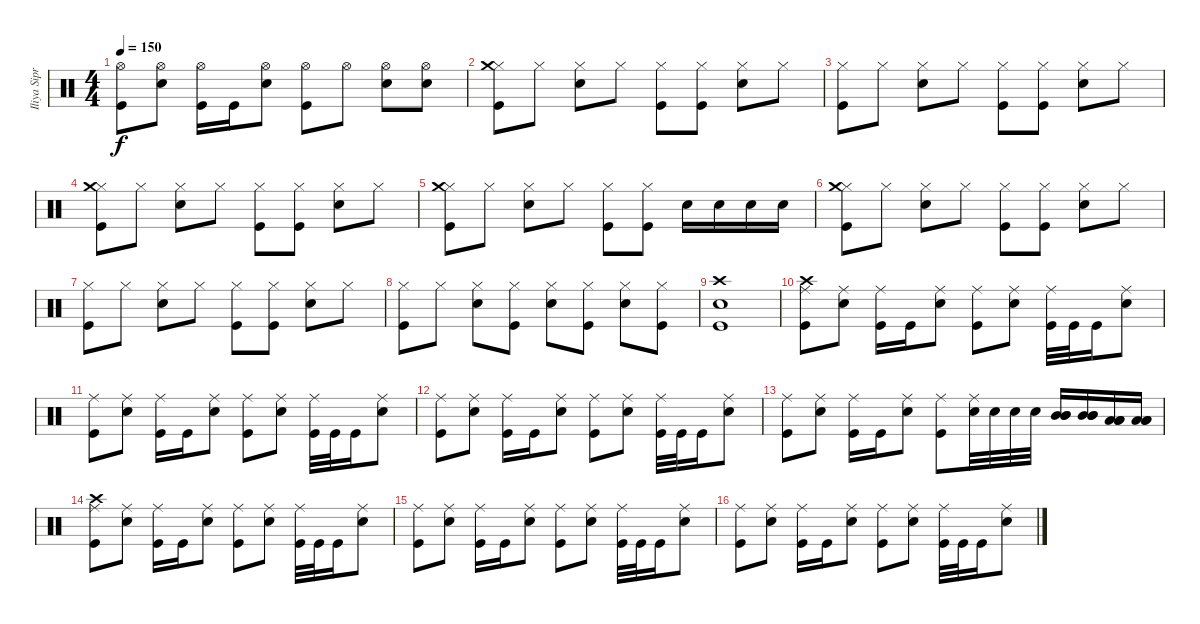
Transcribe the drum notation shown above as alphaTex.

\track ("Iliya Siprov (DRUMS)" "Iliya Sipr") {instrument percussion}
\staff {score}
\articulation defaults
\ts (4 4)
\tempo 150
\clef neutral
\ks c
("Hi-Hat (open)" "Kick (hit)").8{dy f} ("Hi-Hat (open)" "Electric Snare (hit)").8 ("Hi-Hat (open)" "Kick (hit)").16 "Kick (hit)".16 ("Hi-Hat (open)" "Electric Snare (hit)").8 ("Hi-Hat (open)" "Kick (hit)").8 "Hi-Hat (open)".8 ("Hi-Hat (open)" "Electric Snare (hit)").8 ("Hi-Hat (open)" "Electric Snare (hit)").8 |
("Hi-Hat (closed)" "Crash medium (hit)" "Kick (hit)").8 "Hi-Hat (closed)".8 ("Hi-Hat (closed)" "Electric Snare (hit)").8 "Hi-Hat (closed)".8 ("Hi-Hat (closed)" "Kick (hit)").8 ("Hi-Hat (closed)" "Kick (hit)").8 ("Hi-Hat (closed)" "Electric Snare (hit)").8 "Hi-Hat (closed)".8 |
("Hi-Hat (closed)" "Kick (hit)").8 "Hi-Hat (closed)".8 ("Hi-Hat (closed)" "Electric Snare (hit)").8 "Hi-Hat (closed)".8 ("Hi-Hat (closed)" "Kick (hit)").8 ("Hi-Hat (closed)" "Kick (hit)").8 ("Hi-Hat (closed)" "Electric Snare (hit)").8 "Hi-Hat (closed)".8 |
("Hi-Hat (closed)" "Crash medium (hit)" "Kick (hit)").8 "Hi-Hat (closed)".8 ("Hi-Hat (closed)" "Electric Snare (hit)").8 "Hi-Hat (closed)".8 ("Hi-Hat (closed)" "Kick (hit)").8 ("Hi-Hat (closed)" "Kick (hit)").8 ("Hi-Hat (closed)" "Electric Snare (hit)").8 "Hi-Hat (closed)".8 |
("Hi-Hat (closed)" "Crash medium (hit)" "Kick (hit)").8 "Hi-Hat (closed)".8 ("Hi-Hat (closed)" "Electric Snare (hit)").8 "Hi-Hat (closed)".8 ("Hi-Hat (closed)" "Kick (hit)").8 ("Hi-Hat (closed)" "Kick (hit)").8 "Electric Snare (hit)".16 "Electric Snare (hit)".16 "Electric Snare (hit)".16 "Electric Snare (hit)".16 |
("Hi-Hat (closed)" "Crash medium (hit)" "Kick (hit)").8 "Hi-Hat (closed)".8 ("Hi-Hat (closed)" "Electric Snare (hit)").8 "Hi-Hat (closed)".8 ("Hi-Hat (closed)" "Kick (hit)").8 ("Hi-Hat (closed)" "Kick (hit)").8 ("Hi-Hat (closed)" "Electric Snare (hit)").8 "Hi-Hat (closed)".8 |
("Hi-Hat (closed)" "Kick (hit)").8 "Hi-Hat (closed)".8 ("Hi-Hat (closed)" "Electric Snare (hit)").8 "Hi-Hat (closed)".8 ("Hi-Hat (closed)" "Kick (hit)").8 ("Hi-Hat (closed)" "Kick (hit)").8 ("Hi-Hat (closed)" "Electric Snare (hit)").8 "Hi-Hat (closed)".8 |
("Hi-Hat (closed)" "Kick (hit)").8 "Hi-Hat (closed)".8 ("Hi-Hat (closed)" "Electric Snare (hit)").8 ("Hi-Hat (closed)" "Kick (hit)").8 ("Hi-Hat (closed)" "Electric Snare (hit)").8 ("Hi-Hat (closed)" "Kick (hit)").8 ("Hi-Hat (closed)" "Electric Snare (hit)").8 ("Hi-Hat (closed)" "Kick (hit)").8 |
("Crash high (hit)" "Electric Snare (hit)" "Kick (hit)").1 |
("Ride (middle)" "Crash high (hit)" "Kick (hit)").8 ("Ride (middle)" "Electric Snare (hit)").8 ("Ride (middle)" "Kick (hit)").16 "Kick (hit)".16 ("Ride (middle)" "Electric Snare (hit)").8 ("Ride (middle)" "Kick (hit)").8 ("Ride (middle)" "Electric Snare (hit)").8 ("Ride (middle)" "Kick (hit)").32 "Kick (hit)".32 "Kick (hit)".16 ("Ride (middle)" "Electric Snare (hit)").8 |
("Ride (middle)" "Kick (hit)").8 ("Ride (middle)" "Electric Snare (hit)").8 ("Ride (middle)" "Kick (hit)").16 "Kick (hit)".16 ("Ride (middle)" "Electric Snare (hit)").8 ("Ride (middle)" "Kick (hit)").8 ("Ride (middle)" "Electric Snare (hit)").8 ("Ride (middle)" "Kick (hit)").32 "Kick (hit)".32 "Kick (hit)".16 ("Ride (middle)" "Electric Snare (hit)").8 |
("Ride (middle)" "Kick (hit)").8 ("Ride (middle)" "Electric Snare (hit)").8 ("Ride (middle)" "Kick (hit)").16 "Kick (hit)".16 ("Ride (middle)" "Electric Snare (hit)").8 ("Ride (middle)" "Kick (hit)").8 ("Ride (middle)" "Electric Snare (hit)").8 ("Ride (middle)" "Kick (hit)").32 "Kick (hit)".32 "Kick (hit)".16 ("Ride (middle)" "Electric Snare (hit)").8 |
("Ride (middle)" "Kick (hit)").8 ("Ride (middle)" "Electric Snare (hit)").8 ("Ride (middle)" "Kick (hit)").16 "Kick (hit)".16 ("Ride (middle)" "Electric Snare (hit)").8 ("Ride (middle)" "Kick (hit)").8 ("Ride (middle)" "Electric Snare (hit)").32 "Electric Snare (hit)".32 "Electric Snare (hit)".32 "Electric Snare (hit)".32 ("Mid Tom (hit)" "Mid Tom (hit)" "Mid Tom (hit)").16 ("Mid Tom (hit)" "Mid Tom (hit)" "Mid Tom (hit)").16 ("Low Floor Tom (hit)" "Low Floor Tom (hit)" "Low Floor Tom (hit)").16 ("Low Floor Tom (hit)" "Low Floor Tom (hit)" "Low Floor Tom (hit)").16 |
("Ride (middle)" "Crash high (hit)" "Kick (hit)").8 ("Ride (middle)" "Electric Snare (hit)").8 ("Ride (middle)" "Kick (hit)").16 "Kick (hit)".16 ("Ride (middle)" "Electric Snare (hit)").8 ("Ride (middle)" "Kick (hit)").8 ("Ride (middle)" "Electric Snare (hit)").8 ("Ride (middle)" "Kick (hit)").32 "Kick (hit)".32 "Kick (hit)".16 ("Ride (middle)" "Electric Snare (hit)").8 |
("Ride (middle)" "Kick (hit)").8 ("Ride (middle)" "Electric Snare (hit)").8 ("Ride (middle)" "Kick (hit)").16 "Kick (hit)".16 ("Ride (middle)" "Electric Snare (hit)").8 ("Ride (middle)" "Kick (hit)").8 ("Ride (middle)" "Electric Snare (hit)").8 ("Ride (middle)" "Kick (hit)").32 "Kick (hit)".32 "Kick (hit)".16 ("Ride (middle)" "Electric Snare (hit)").8 |
("Ride (middle)" "Kick (hit)").8 ("Ride (middle)" "Electric Snare (hit)").8 ("Ride (middle)" "Kick (hit)").16 "Kick (hit)".16 ("Ride (middle)" "Electric Snare (hit)").8 ("Ride (middle)" "Kick (hit)").8 ("Ride (middle)" "Electric Snare (hit)").8 ("Ride (middle)" "Kick (hit)").32 "Kick (hit)".32 "Kick (hit)".16 ("Ride (middle)" "Electric Snare (hit)").8
